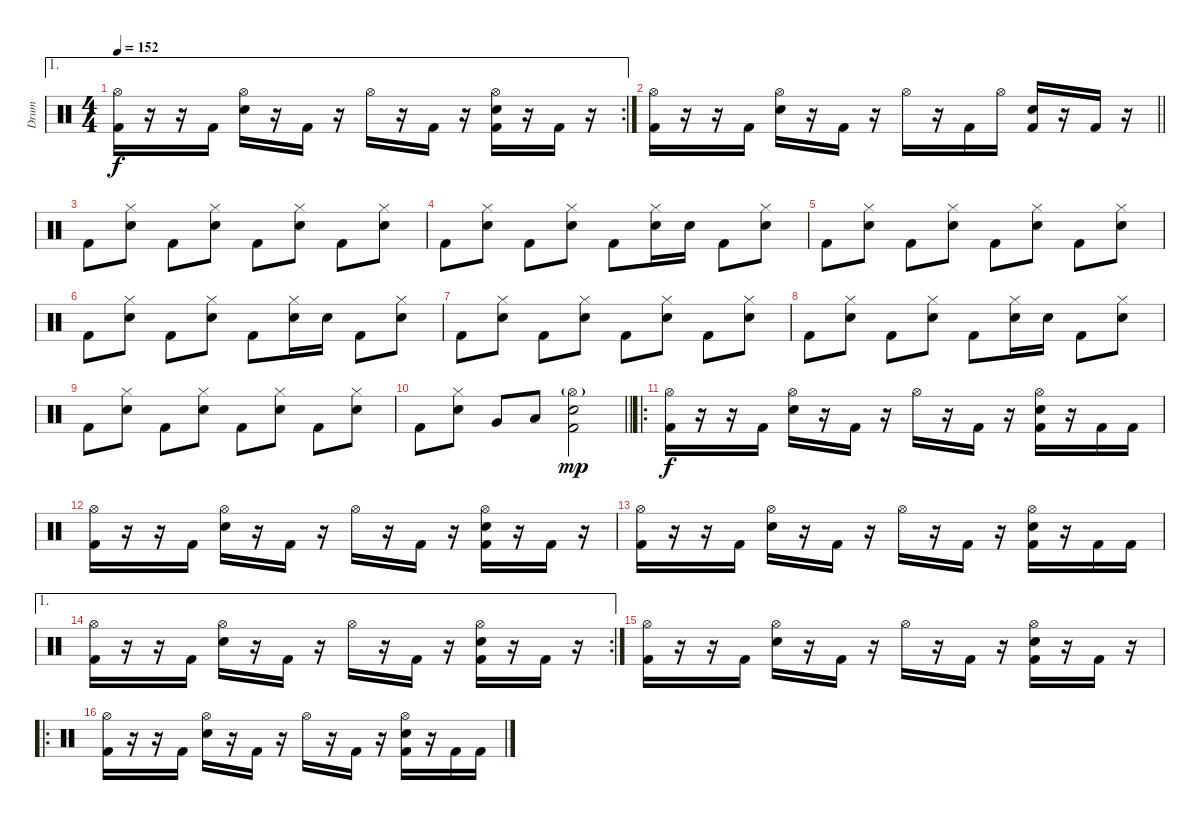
\track ("Drum" "Drum") {instrument percussion}
\staff {score}
\articulation defaults
\ae 1
\rc 2
\ts (4 4)
\tempo 152
\clef neutral
\ks c
("Hi-Hat (open)" "Kick (hit) 2").16{dy f} r.16 r.16 "Kick (hit) 2".16 ("Hi-Hat (open)" "Electric Snare (hit)").16 r.16 "Kick (hit) 2".16 r.16 "Hi-Hat (open)".16 r.16 "Kick (hit) 2".16 r.16 ("Hi-Hat (open)" "Electric Snare (hit)" "Kick (hit) 2").16 r.16 "Kick (hit) 2".16 r.16 |
\barLineRight lightlight
("Hi-Hat (open)" "Kick (hit) 2").16 r.16 r.16 "Kick (hit) 2".16 ("Hi-Hat (open)" "Electric Snare (hit)").16 r.16 "Kick (hit) 2".16 r.16 "Hi-Hat (open)".16 r.16 "Kick (hit) 2".16 "Hi-Hat (open)".16 ("Electric Snare (hit)" "Kick (hit) 2").16 r.16 "Kick (hit) 2".16 r.16 |
"Kick (hit) 2".8 ("Hi-Hat (closed)" "Electric Snare (hit)").8 "Kick (hit) 2".8 ("Hi-Hat (closed)" "Electric Snare (hit)").8 "Kick (hit) 2".8 ("Hi-Hat (closed)" "Electric Snare (hit)").8 "Kick (hit) 2".8 ("Hi-Hat (closed)" "Electric Snare (hit)").8 |
"Kick (hit) 2".8 ("Hi-Hat (closed)" "Electric Snare (hit)").8 "Kick (hit) 2".8 ("Hi-Hat (closed)" "Electric Snare (hit)").8 "Kick (hit) 2".8 ("Hi-Hat (closed)" "Electric Snare (hit)").16 "Electric Snare (hit)".16 "Kick (hit) 2".8 ("Hi-Hat (closed)" "Electric Snare (hit)").8 |
"Kick (hit) 2".8 ("Hi-Hat (closed)" "Electric Snare (hit)").8 "Kick (hit) 2".8 ("Hi-Hat (closed)" "Electric Snare (hit)").8 "Kick (hit) 2".8 ("Hi-Hat (closed)" "Electric Snare (hit)").8 "Kick (hit) 2".8 ("Hi-Hat (closed)" "Electric Snare (hit)").8 |
"Kick (hit) 2".8 ("Hi-Hat (closed)" "Electric Snare (hit)").8 "Kick (hit) 2".8 ("Hi-Hat (closed)" "Electric Snare (hit)").8 "Kick (hit) 2".8 ("Hi-Hat (closed)" "Electric Snare (hit)").16 "Electric Snare (hit)".16 "Kick (hit) 2".8 ("Hi-Hat (closed)" "Electric Snare (hit)").8 |
"Kick (hit) 2".8 ("Hi-Hat (closed)" "Electric Snare (hit)").8 "Kick (hit) 2".8 ("Hi-Hat (closed)" "Electric Snare (hit)").8 "Kick (hit) 2".8 ("Hi-Hat (closed)" "Electric Snare (hit)").8 "Kick (hit) 2".8 ("Hi-Hat (closed)" "Electric Snare (hit)").8 |
"Kick (hit) 2".8 ("Hi-Hat (closed)" "Electric Snare (hit)").8 "Kick (hit) 2".8 ("Hi-Hat (closed)" "Electric Snare (hit)").8 "Kick (hit) 2".8 ("Hi-Hat (closed)" "Electric Snare (hit)").16 "Electric Snare (hit)".16 "Kick (hit) 2".8 ("Hi-Hat (closed)" "Electric Snare (hit)").8 |
"Kick (hit) 2".8 ("Hi-Hat (closed)" "Electric Snare (hit)").8 "Kick (hit) 2".8 ("Hi-Hat (closed)" "Electric Snare (hit)").8 "Kick (hit) 2".8 ("Hi-Hat (closed)" "Electric Snare (hit)").8 "Kick (hit) 2".8 ("Hi-Hat (closed)" "Electric Snare (hit)").8 |
\barLineRight lightlight "Kick (hit) 2".8
("Hi-Hat (closed)" "Electric Snare (hit)").8 "Very Low Tom (hit)".8 "Low Floor Tom (hit)".8 ("Hi-Hat (open)"{g pm} "Electric Snare (hit)" "Kick (hit) 2").2{dy mp} |
\ro
("Hi-Hat (open)" "Kick (hit) 2").16{dy f volume 16} r.16 r.16 "Kick (hit) 2".16 ("Hi-Hat (open)" "Electric Snare (hit)").16 r.16 "Kick (hit) 2".16 r.16 "Hi-Hat (open)".16 r.16 "Kick (hit) 2".16 r.16 ("Hi-Hat (open)" "Electric Snare (hit)" "Kick (hit) 2").16 r.16 "Kick (hit) 2".16 "Kick (hit) 2".16 |
("Hi-Hat (open)" "Kick (hit) 2").16 r.16 r.16 "Kick (hit) 2".16 ("Hi-Hat (open)" "Electric Snare (hit)").16 r.16 "Kick (hit) 2".16 r.16 "Hi-Hat (open)".16 r.16 "Kick (hit) 2".16 r.16 ("Hi-Hat (open)" "Electric Snare (hit)" "Kick (hit) 2").16 r.16 "Kick (hit) 2".16 r.16 |
("Hi-Hat (open)" "Kick (hit) 2").16 r.16 r.16 "Kick (hit) 2".16 ("Hi-Hat (open)" "Electric Snare (hit)").16 r.16 "Kick (hit) 2".16 r.16 "Hi-Hat (open)".16 r.16 "Kick (hit) 2".16 r.16 ("Hi-Hat (open)" "Electric Snare (hit)" "Kick (hit) 2").16 r.16 "Kick (hit) 2".16 "Kick (hit) 2".16 |
\ae 1
\rc 2
("Hi-Hat (open)" "Kick (hit) 2").16 r.16 r.16 "Kick (hit) 2".16 ("Hi-Hat (open)" "Electric Snare (hit)").16 r.16 "Kick (hit) 2".16 r.16 "Hi-Hat (open)".16 r.16 "Kick (hit) 2".16 r.16 ("Hi-Hat (open)" "Electric Snare (hit)" "Kick (hit) 2").16 r.16 "Kick (hit) 2".16 r.16 |
("Hi-Hat (open)" "Kick (hit) 2").16 r.16 r.16 "Kick (hit) 2".16 ("Hi-Hat (open)" "Electric Snare (hit)").16 r.16 "Kick (hit) 2".16 r.16 "Hi-Hat (open)".16 r.16 "Kick (hit) 2".16 r.16 ("Hi-Hat (open)" "Electric Snare (hit)" "Kick (hit) 2").16 r.16 "Kick (hit) 2".16 r.16 |
\ro
("Hi-Hat (open)" "Kick (hit) 2").16{volume 16} r.16 r.16 "Kick (hit) 2".16 ("Hi-Hat (open)" "Electric Snare (hit)").16 r.16 "Kick (hit) 2".16 r.16 "Hi-Hat (open)".16 r.16 "Kick (hit) 2".16 r.16 ("Hi-Hat (open)" "Electric Snare (hit)" "Kick (hit) 2").16 r.16 "Kick (hit) 2".16 "Kick (hit) 2".16
